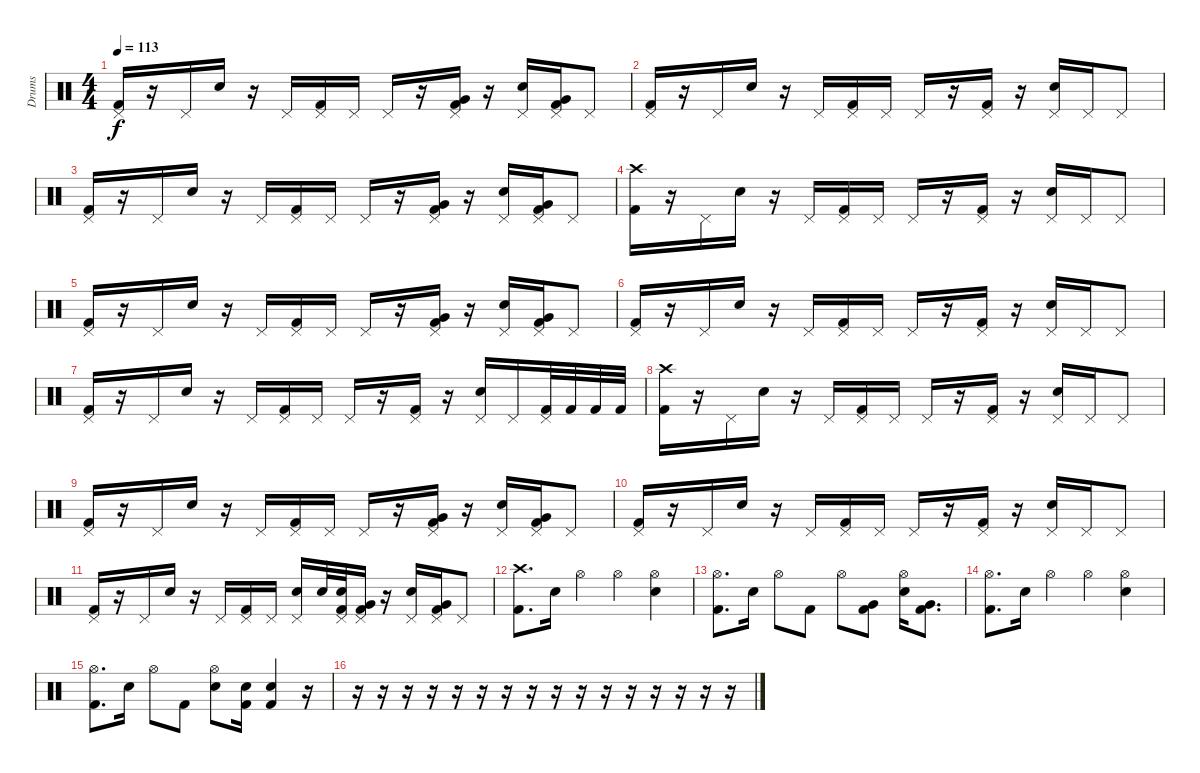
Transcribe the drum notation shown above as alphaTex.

\track ("Drums" "Drums") {instrument percussion}
\staff {score}
\articulation defaults
\ts (4 4)
\tempo 113
\clef neutral
\ks c
("Pedal Hi-Hat (hit)" "Kick (hit) 2").16{dy f} r.16 "Pedal Hi-Hat (hit)".16 "Snare (hit) 2".16 r.16 "Pedal Hi-Hat (hit)".16 ("Pedal Hi-Hat (hit)" "Kick (hit) 2").16 "Pedal Hi-Hat (hit)".16 "Pedal Hi-Hat (hit)".16 r.16 ("Pedal Hi-Hat (hit)" "Very Low Tom (hit)" "Kick (hit) 2").16 r.16 ("Pedal Hi-Hat (hit)" "Snare (hit) 2").16 ("Pedal Hi-Hat (hit)" "Very Low Tom (hit)" "Kick (hit) 2").16 "Pedal Hi-Hat (hit)".8 |
("Pedal Hi-Hat (hit)" "Kick (hit) 2").16 r.16 "Pedal Hi-Hat (hit)".16 "Snare (hit) 2".16 r.16 "Pedal Hi-Hat (hit)".16 ("Pedal Hi-Hat (hit)" "Kick (hit) 2").16 "Pedal Hi-Hat (hit)".16 "Pedal Hi-Hat (hit)".16 r.16 ("Pedal Hi-Hat (hit)" "Kick (hit) 2").16 r.16 ("Pedal Hi-Hat (hit)" "Snare (hit) 2").16 "Pedal Hi-Hat (hit)".16 "Pedal Hi-Hat (hit)".8 |
("Pedal Hi-Hat (hit)" "Kick (hit) 2").16 r.16 "Pedal Hi-Hat (hit)".16 "Snare (hit) 2".16 r.16 "Pedal Hi-Hat (hit)".16 ("Pedal Hi-Hat (hit)" "Kick (hit) 2").16 "Pedal Hi-Hat (hit)".16 "Pedal Hi-Hat (hit)".16 r.16 ("Pedal Hi-Hat (hit)" "Very Low Tom (hit)" "Kick (hit) 2").16 r.16 ("Pedal Hi-Hat (hit)" "Snare (hit) 2").16 ("Pedal Hi-Hat (hit)" "Very Low Tom (hit)" "Kick (hit) 2").16 "Pedal Hi-Hat (hit)".8 |
("Crash high (hit)" "Kick (hit) 2").16 r.16 "Pedal Hi-Hat (hit)".16 "Snare (hit) 2".16 r.16 "Pedal Hi-Hat (hit)".16 ("Pedal Hi-Hat (hit)" "Kick (hit) 2").16 "Pedal Hi-Hat (hit)".16 "Pedal Hi-Hat (hit)".16 r.16 ("Pedal Hi-Hat (hit)" "Kick (hit) 2").16 r.16 ("Pedal Hi-Hat (hit)" "Snare (hit) 2").16 "Pedal Hi-Hat (hit)".16 "Pedal Hi-Hat (hit)".8 |
("Pedal Hi-Hat (hit)" "Kick (hit) 2").16 r.16 "Pedal Hi-Hat (hit)".16 "Snare (hit) 2".16 r.16 "Pedal Hi-Hat (hit)".16 ("Pedal Hi-Hat (hit)" "Kick (hit) 2").16 "Pedal Hi-Hat (hit)".16 "Pedal Hi-Hat (hit)".16 r.16 ("Pedal Hi-Hat (hit)" "Very Low Tom (hit)" "Kick (hit) 2").16 r.16 ("Pedal Hi-Hat (hit)" "Snare (hit) 2").16 ("Pedal Hi-Hat (hit)" "Very Low Tom (hit)" "Kick (hit) 2").16 "Pedal Hi-Hat (hit)".8 |
("Pedal Hi-Hat (hit)" "Kick (hit) 2").16 r.16 "Pedal Hi-Hat (hit)".16 "Snare (hit) 2".16 r.16 "Pedal Hi-Hat (hit)".16 ("Pedal Hi-Hat (hit)" "Kick (hit) 2").16 "Pedal Hi-Hat (hit)".16 "Pedal Hi-Hat (hit)".16 r.16 ("Pedal Hi-Hat (hit)" "Kick (hit) 2").16 r.16 ("Pedal Hi-Hat (hit)" "Snare (hit) 2").16 "Pedal Hi-Hat (hit)".16 "Pedal Hi-Hat (hit)".8 |
("Pedal Hi-Hat (hit)" "Kick (hit) 2").16 r.16 "Pedal Hi-Hat (hit)".16 "Snare (hit) 2".16 r.16 "Pedal Hi-Hat (hit)".16 ("Pedal Hi-Hat (hit)" "Kick (hit) 2").16 "Pedal Hi-Hat (hit)".16 "Pedal Hi-Hat (hit)".16 r.16 ("Pedal Hi-Hat (hit)" "Kick (hit) 2").16 r.16 ("Pedal Hi-Hat (hit)" "Snare (hit) 2").16 "Pedal Hi-Hat (hit)".16 ("Pedal Hi-Hat (hit)" "Kick (hit) 2").32 "Kick (hit) 2".32 "Kick (hit) 2".32 "Kick (hit) 2".32 |
("Crash high (hit)" "Kick (hit) 2").16 r.16 "Pedal Hi-Hat (hit)".16 "Snare (hit) 2".16 r.16 "Pedal Hi-Hat (hit)".16 ("Pedal Hi-Hat (hit)" "Kick (hit) 2").16 "Pedal Hi-Hat (hit)".16 "Pedal Hi-Hat (hit)".16 r.16 ("Pedal Hi-Hat (hit)" "Kick (hit) 2").16 r.16 ("Pedal Hi-Hat (hit)" "Snare (hit) 2").16 "Pedal Hi-Hat (hit)".16 "Pedal Hi-Hat (hit)".8 |
("Pedal Hi-Hat (hit)" "Kick (hit) 2").16 r.16 "Pedal Hi-Hat (hit)".16 "Snare (hit) 2".16 r.16 "Pedal Hi-Hat (hit)".16 ("Pedal Hi-Hat (hit)" "Kick (hit) 2").16 "Pedal Hi-Hat (hit)".16 "Pedal Hi-Hat (hit)".16 r.16 ("Pedal Hi-Hat (hit)" "Very Low Tom (hit)" "Kick (hit) 2").16 r.16 ("Pedal Hi-Hat (hit)" "Snare (hit) 2").16 ("Pedal Hi-Hat (hit)" "Very Low Tom (hit)" "Kick (hit) 2").16 "Pedal Hi-Hat (hit)".8 |
("Pedal Hi-Hat (hit)" "Kick (hit) 2").16 r.16 "Pedal Hi-Hat (hit)".16 "Snare (hit) 2".16 r.16 "Pedal Hi-Hat (hit)".16 ("Pedal Hi-Hat (hit)" "Kick (hit) 2").16 "Pedal Hi-Hat (hit)".16 "Pedal Hi-Hat (hit)".16 r.16 ("Pedal Hi-Hat (hit)" "Kick (hit) 2").16 r.16 ("Pedal Hi-Hat (hit)" "Snare (hit) 2").16 "Pedal Hi-Hat (hit)".16 "Pedal Hi-Hat (hit)".8 |
("Pedal Hi-Hat (hit)" "Kick (hit) 2").16 r.16 "Pedal Hi-Hat (hit)".16 "Snare (hit) 2".16 r.16 "Pedal Hi-Hat (hit)".16 ("Pedal Hi-Hat (hit)" "Kick (hit) 2").16 "Pedal Hi-Hat (hit)".16 ("Pedal Hi-Hat (hit)" "Snare (hit) 2").16 "Snare (hit) 2".32 ("Pedal Hi-Hat (hit)" "Snare (hit) 2" "Kick (hit) 2").32 ("Pedal Hi-Hat (hit)" "Very Low Tom (hit)" "Kick (hit) 2").16 r.16 ("Pedal Hi-Hat (hit)" "Snare (hit) 2").16 ("Pedal Hi-Hat (hit)" "Very Low Tom (hit)" "Kick (hit) 2").16 "Pedal Hi-Hat (hit)".8 |
("Crash high (hit)" "Kick (hit) 2").8{d} "Snare (hit) 2".16 "Hi-Hat (open)".4 "Hi-Hat (open)".4 ("Hi-Hat (open)" "Snare (hit) 2").4 |
("Hi-Hat (open)" "Kick (hit) 2").8{d} "Snare (hit) 2".16 "Hi-Hat (open)".8 "Kick (hit) 2".8 "Hi-Hat (open)".8 ("Very Low Tom (hit)" "Kick (hit) 2").8 ("Hi-Hat (open)" "Snare (hit) 2").16 ("Very Low Tom (hit)" "Kick (hit) 2").8{d} |
("Hi-Hat (open)" "Kick (hit) 2").8{d} "Snare (hit) 2".16 "Hi-Hat (open)".4 "Hi-Hat (open)".4 ("Hi-Hat (open)" "Snare (hit) 2").4 |
("Hi-Hat (open)" "Kick (hit) 2").8{d} "Snare (hit) 2".16 "Hi-Hat (open)".8 "Kick (hit) 2".8 ("Hi-Hat (open)" "Snare (hit) 2").8 ("Snare (hit) 2" "Kick (hit) 2").16 ("Snare (hit) 2" "Kick (hit) 2").4 r.16 |
r.16 r.16 r.16 r.16 r.16 r.16 r.16 r.16 r.16 r.16 r.16 r.16 r.16 r.16 r.16 r.16
